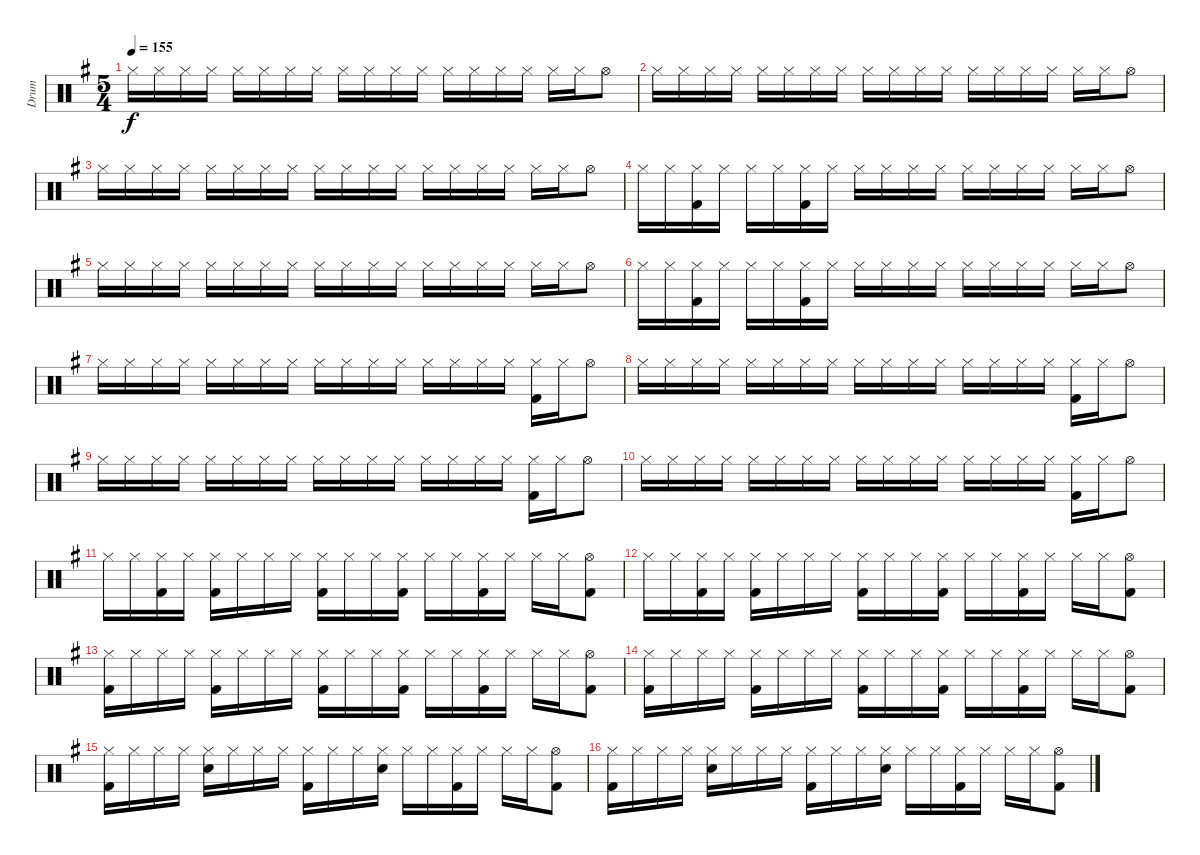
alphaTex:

\track ("Drum" "Drum") {instrument percussion}
\staff {score}
\articulation defaults
\ts (5 4)
\tempo 155
\clef neutral
\ks g "Hi-Hat (closed)".16{dy f} "Hi-Hat (closed)".16 "Hi-Hat (closed)".16 "Hi-Hat (closed)".16 "Hi-Hat (closed)".16 "Hi-Hat (closed)".16 "Hi-Hat (closed)".16 "Hi-Hat (closed)".16 "Hi-Hat (closed)".16 "Hi-Hat (closed)".16 "Hi-Hat (closed)".16 "Hi-Hat (closed)".16 "Hi-Hat (closed)".16 "Hi-Hat (closed)".16 "Hi-Hat (closed)".16 "Hi-Hat (closed)".16 "Hi-Hat (closed)".16 "Hi-Hat (closed)".16 "Hi-Hat (open)".8
|
"Hi-Hat (closed)".16 "Hi-Hat (closed)".16 "Hi-Hat (closed)".16 "Hi-Hat (closed)".16 "Hi-Hat (closed)".16 "Hi-Hat (closed)".16 "Hi-Hat (closed)".16 "Hi-Hat (closed)".16 "Hi-Hat (closed)".16 "Hi-Hat (closed)".16 "Hi-Hat (closed)".16 "Hi-Hat (closed)".16 "Hi-Hat (closed)".16 "Hi-Hat (closed)".16 "Hi-Hat (closed)".16 "Hi-Hat (closed)".16 "Hi-Hat (closed)".16 "Hi-Hat (closed)".16 "Hi-Hat (open)".8 |
"Hi-Hat (closed)".16 "Hi-Hat (closed)".16 "Hi-Hat (closed)".16 "Hi-Hat (closed)".16 "Hi-Hat (closed)".16 "Hi-Hat (closed)".16 "Hi-Hat (closed)".16 "Hi-Hat (closed)".16 "Hi-Hat (closed)".16 "Hi-Hat (closed)".16 "Hi-Hat (closed)".16 "Hi-Hat (closed)".16 "Hi-Hat (closed)".16 "Hi-Hat (closed)".16 "Hi-Hat (closed)".16 "Hi-Hat (closed)".16 "Hi-Hat (closed)".16 "Hi-Hat (closed)".16 "Hi-Hat (open)".8 |
"Hi-Hat (closed)".16 "Hi-Hat (closed)".16 ("Hi-Hat (closed)" "Kick (hit) 2").16 "Hi-Hat (closed)".16 "Hi-Hat (closed)".16 "Hi-Hat (closed)".16 ("Hi-Hat (closed)" "Kick (hit) 2").16 "Hi-Hat (closed)".16 "Hi-Hat (closed)".16 "Hi-Hat (closed)".16 "Hi-Hat (closed)".16 "Hi-Hat (closed)".16 "Hi-Hat (closed)".16 "Hi-Hat (closed)".16 "Hi-Hat (closed)".16 "Hi-Hat (closed)".16 "Hi-Hat (closed)".16 "Hi-Hat (closed)".16 "Hi-Hat (open)".8 |
"Hi-Hat (closed)".16 "Hi-Hat (closed)".16 "Hi-Hat (closed)".16 "Hi-Hat (closed)".16 "Hi-Hat (closed)".16 "Hi-Hat (closed)".16 "Hi-Hat (closed)".16 "Hi-Hat (closed)".16 "Hi-Hat (closed)".16 "Hi-Hat (closed)".16 "Hi-Hat (closed)".16 "Hi-Hat (closed)".16 "Hi-Hat (closed)".16 "Hi-Hat (closed)".16 "Hi-Hat (closed)".16 "Hi-Hat (closed)".16 "Hi-Hat (closed)".16 "Hi-Hat (closed)".16 "Hi-Hat (open)".8 |
"Hi-Hat (closed)".16 "Hi-Hat (closed)".16 ("Hi-Hat (closed)" "Kick (hit) 2").16 "Hi-Hat (closed)".16 "Hi-Hat (closed)".16 "Hi-Hat (closed)".16 ("Hi-Hat (closed)" "Kick (hit) 2").16 "Hi-Hat (closed)".16 "Hi-Hat (closed)".16 "Hi-Hat (closed)".16 "Hi-Hat (closed)".16 "Hi-Hat (closed)".16 "Hi-Hat (closed)".16 "Hi-Hat (closed)".16 "Hi-Hat (closed)".16 "Hi-Hat (closed)".16 "Hi-Hat (closed)".16 "Hi-Hat (closed)".16 "Hi-Hat (open)".8 |
"Hi-Hat (closed)".16 "Hi-Hat (closed)".16 "Hi-Hat (closed)".16 "Hi-Hat (closed)".16 "Hi-Hat (closed)".16 "Hi-Hat (closed)".16 "Hi-Hat (closed)".16 "Hi-Hat (closed)".16 "Hi-Hat (closed)".16 "Hi-Hat (closed)".16 "Hi-Hat (closed)".16 "Hi-Hat (closed)".16 "Hi-Hat (closed)".16 "Hi-Hat (closed)".16 "Hi-Hat (closed)".16 "Hi-Hat (closed)".16 ("Hi-Hat (closed)" "Kick (hit) 2").16 "Hi-Hat (closed)".16 "Hi-Hat (open)".8 |
"Hi-Hat (closed)".16 "Hi-Hat (closed)".16 "Hi-Hat (closed)".16 "Hi-Hat (closed)".16 "Hi-Hat (closed)".16 "Hi-Hat (closed)".16 "Hi-Hat (closed)".16 "Hi-Hat (closed)".16 "Hi-Hat (closed)".16 "Hi-Hat (closed)".16 "Hi-Hat (closed)".16 "Hi-Hat (closed)".16 "Hi-Hat (closed)".16 "Hi-Hat (closed)".16 "Hi-Hat (closed)".16 "Hi-Hat (closed)".16 ("Hi-Hat (closed)" "Kick (hit) 2").16 "Hi-Hat (closed)".16 "Hi-Hat (open)".8 |
"Hi-Hat (closed)".16 "Hi-Hat (closed)".16 "Hi-Hat (closed)".16 "Hi-Hat (closed)".16 "Hi-Hat (closed)".16 "Hi-Hat (closed)".16 "Hi-Hat (closed)".16 "Hi-Hat (closed)".16 "Hi-Hat (closed)".16 "Hi-Hat (closed)".16 "Hi-Hat (closed)".16 "Hi-Hat (closed)".16 "Hi-Hat (closed)".16 "Hi-Hat (closed)".16 "Hi-Hat (closed)".16 "Hi-Hat (closed)".16 ("Hi-Hat (closed)" "Kick (hit) 2").16 "Hi-Hat (closed)".16 "Hi-Hat (open)".8 |
"Hi-Hat (closed)".16 "Hi-Hat (closed)".16 "Hi-Hat (closed)".16 "Hi-Hat (closed)".16 "Hi-Hat (closed)".16 "Hi-Hat (closed)".16 "Hi-Hat (closed)".16 "Hi-Hat (closed)".16 "Hi-Hat (closed)".16 "Hi-Hat (closed)".16 "Hi-Hat (closed)".16 "Hi-Hat (closed)".16 "Hi-Hat (closed)".16 "Hi-Hat (closed)".16 "Hi-Hat (closed)".16 "Hi-Hat (closed)".16 ("Hi-Hat (closed)" "Kick (hit) 2").16 "Hi-Hat (closed)".16 "Hi-Hat (open)".8 |
"Hi-Hat (closed)".16 "Hi-Hat (closed)".16 ("Hi-Hat (closed)" "Kick (hit) 2").16 "Hi-Hat (closed)".16 ("Hi-Hat (closed)" "Kick (hit) 2").16 "Hi-Hat (closed)".16 "Hi-Hat (closed)".16 "Hi-Hat (closed)".16 ("Hi-Hat (closed)" "Kick (hit) 2").16 "Hi-Hat (closed)".16 "Hi-Hat (closed)".16 ("Hi-Hat (closed)" "Kick (hit) 2").16 "Hi-Hat (closed)".16 "Hi-Hat (closed)".16 ("Hi-Hat (closed)" "Kick (hit) 2").16 "Hi-Hat (closed)".16 "Hi-Hat (closed)".16 "Hi-Hat (closed)".16 ("Hi-Hat (open)" "Kick (hit) 2").8 |
"Hi-Hat (closed)".16 "Hi-Hat (closed)".16 ("Hi-Hat (closed)" "Kick (hit) 2").16 "Hi-Hat (closed)".16 ("Hi-Hat (closed)" "Kick (hit) 2").16 "Hi-Hat (closed)".16 "Hi-Hat (closed)".16 "Hi-Hat (closed)".16 ("Hi-Hat (closed)" "Kick (hit) 2").16 "Hi-Hat (closed)".16 "Hi-Hat (closed)".16 ("Hi-Hat (closed)" "Kick (hit) 2").16 "Hi-Hat (closed)".16 "Hi-Hat (closed)".16 ("Hi-Hat (closed)" "Kick (hit) 2").16 "Hi-Hat (closed)".16 "Hi-Hat (closed)".16 "Hi-Hat (closed)".16 ("Hi-Hat (open)" "Kick (hit) 2").8 |
("Hi-Hat (closed)" "Kick (hit) 2").16 "Hi-Hat (closed)".16 "Hi-Hat (closed)".16 "Hi-Hat (closed)".16 ("Hi-Hat (closed)" "Kick (hit) 2").16 "Hi-Hat (closed)".16 "Hi-Hat (closed)".16 "Hi-Hat (closed)".16 ("Hi-Hat (closed)" "Kick (hit) 2").16 "Hi-Hat (closed)".16 "Hi-Hat (closed)".16 ("Hi-Hat (closed)" "Kick (hit) 2").16 "Hi-Hat (closed)".16 "Hi-Hat (closed)".16 ("Hi-Hat (closed)" "Kick (hit) 2").16 "Hi-Hat (closed)".16 "Hi-Hat (closed)".16 "Hi-Hat (closed)".16 ("Hi-Hat (open)" "Kick (hit) 2").8 |
("Hi-Hat (closed)" "Kick (hit) 2").16 "Hi-Hat (closed)".16 "Hi-Hat (closed)".16 "Hi-Hat (closed)".16 ("Hi-Hat (closed)" "Kick (hit) 2").16 "Hi-Hat (closed)".16 "Hi-Hat (closed)".16 "Hi-Hat (closed)".16 ("Hi-Hat (closed)" "Kick (hit) 2").16 "Hi-Hat (closed)".16 "Hi-Hat (closed)".16 ("Hi-Hat (closed)" "Kick (hit) 2").16 "Hi-Hat (closed)".16 "Hi-Hat (closed)".16 ("Hi-Hat (closed)" "Kick (hit) 2").16 "Hi-Hat (closed)".16 "Hi-Hat (closed)".16 "Hi-Hat (closed)".16 ("Hi-Hat (open)" "Kick (hit) 2").8 |
("Hi-Hat (closed)" "Kick (hit) 2").16 "Hi-Hat (closed)".16 "Hi-Hat (closed)".16 "Hi-Hat (closed)".16 ("Hi-Hat (closed)" "Snare (hit) 2").16 "Hi-Hat (closed)".16 "Hi-Hat (closed)".16 "Hi-Hat (closed)".16 ("Hi-Hat (closed)" "Kick (hit) 2").16 "Hi-Hat (closed)".16 "Hi-Hat (closed)".16 ("Hi-Hat (closed)" "Snare (hit) 2").16 "Hi-Hat (closed)".16 "Hi-Hat (closed)".16 ("Hi-Hat (closed)" "Kick (hit) 2").16 "Hi-Hat (closed)".16 "Hi-Hat (closed)".16 "Hi-Hat (closed)".16 ("Hi-Hat (open)" "Kick (hit) 2").8 |
("Hi-Hat (closed)" "Kick (hit) 2").16 "Hi-Hat (closed)".16 "Hi-Hat (closed)".16 "Hi-Hat (closed)".16 ("Hi-Hat (closed)" "Snare (hit) 2").16 "Hi-Hat (closed)".16 "Hi-Hat (closed)".16 "Hi-Hat (closed)".16 ("Hi-Hat (closed)" "Kick (hit) 2").16 "Hi-Hat (closed)".16 "Hi-Hat (closed)".16 ("Hi-Hat (closed)" "Snare (hit) 2").16 "Hi-Hat (closed)".16 "Hi-Hat (closed)".16 ("Hi-Hat (closed)" "Kick (hit) 2").16 "Hi-Hat (closed)".16 "Hi-Hat (closed)".16 "Hi-Hat (closed)".16 ("Hi-Hat (open)" "Kick (hit) 2").8
